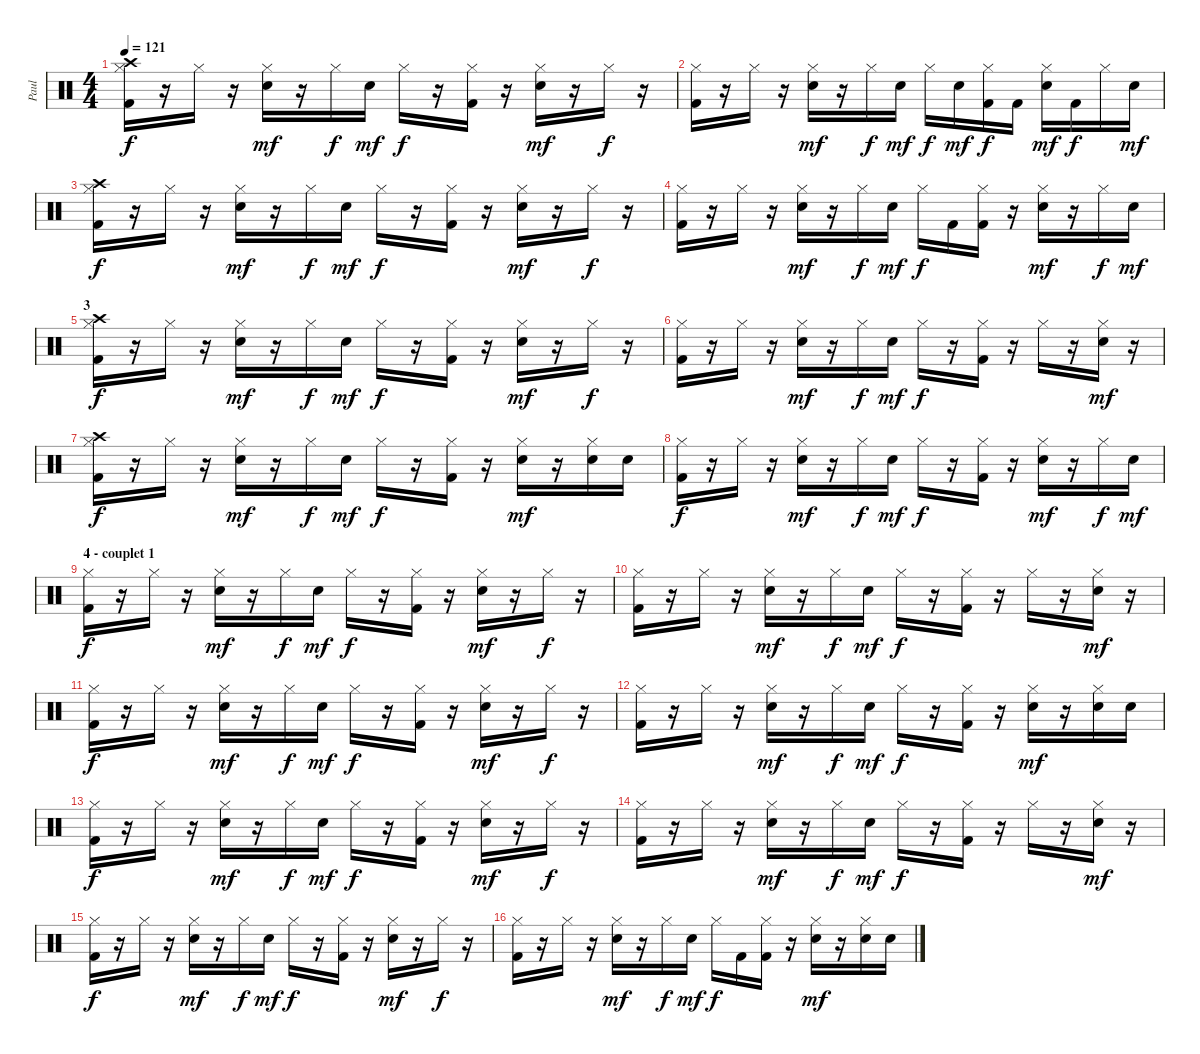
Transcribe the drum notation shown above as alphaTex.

\track ("Paul" "Paul") {instrument percussion}
\staff {score}
\articulation defaults
\ts (4 4)
\tempo 121
\clef neutral
\ks c
("Hi-Hat (closed)" "Crash high (hit)" "Kick (hit) 2").16{dy f} r.16 "Hi-Hat (closed)".16 r.16 ("Hi-Hat (closed)" "Snare (hit) 2").16{dy mf} r.16 "Hi-Hat (closed)".16{dy f} "Snare (hit) 2".16{dy mf} "Hi-Hat (closed)".16{dy f} r.16 ("Hi-Hat (closed)" "Kick (hit) 2").16 r.16 ("Hi-Hat (closed)" "Snare (hit) 2").16{dy mf} r.16 "Hi-Hat (closed)".16{dy f} r.16 |
("Hi-Hat (closed)" "Kick (hit) 2").16 r.16 "Hi-Hat (closed)".16 r.16 ("Hi-Hat (closed)" "Snare (hit) 2").16{dy mf} r.16 "Hi-Hat (closed)".16{dy f} "Snare (hit) 2".16{dy mf} "Hi-Hat (closed)".16{dy f} "Snare (hit) 2".16{dy mf} ("Hi-Hat (closed)" "Kick (hit) 2").16{dy f} "Kick (hit) 2".16 ("Hi-Hat (closed)" "Snare (hit) 2").16{dy mf} "Kick (hit) 2".16{dy f} "Hi-Hat (closed)".16 "Snare (hit) 2".16{dy mf} |
("Hi-Hat (closed)" "Crash high (hit)" "Kick (hit) 2").16{dy f} r.16 "Hi-Hat (closed)".16 r.16 ("Hi-Hat (closed)" "Snare (hit) 2").16{dy mf} r.16 "Hi-Hat (closed)".16{dy f} "Snare (hit) 2".16{dy mf} "Hi-Hat (closed)".16{dy f} r.16 ("Hi-Hat (closed)" "Kick (hit) 2").16 r.16 ("Hi-Hat (closed)" "Snare (hit) 2").16{dy mf} r.16 "Hi-Hat (closed)".16{dy f} r.16 |
("Hi-Hat (closed)" "Kick (hit) 2").16 r.16 "Hi-Hat (closed)".16 r.16 ("Hi-Hat (closed)" "Snare (hit) 2").16{dy mf} r.16 "Hi-Hat (closed)".16{dy f} "Snare (hit) 2".16{dy mf} "Hi-Hat (closed)".16{dy f} "Kick (hit) 2".16 ("Hi-Hat (closed)" "Kick (hit) 2").16 r.16 ("Hi-Hat (closed)" "Snare (hit) 2").16{dy mf} r.16 "Hi-Hat (closed)".16{dy f} "Snare (hit) 2".16{dy mf} |
\section ("" "3")
("Hi-Hat (closed)" "Crash high (hit)" "Kick (hit) 2").16{dy f} r.16 "Hi-Hat (closed)".16 r.16 ("Hi-Hat (closed)" "Snare (hit) 2").16{dy mf} r.16 "Hi-Hat (closed)".16{dy f} "Snare (hit) 2".16{dy mf} "Hi-Hat (closed)".16{dy f} r.16 ("Hi-Hat (closed)" "Kick (hit) 2").16 r.16 ("Hi-Hat (closed)" "Snare (hit) 2").16{dy mf} r.16 "Hi-Hat (closed)".16{dy f} r.16 |
("Hi-Hat (closed)" "Kick (hit) 2").16 r.16 "Hi-Hat (closed)".16 r.16 ("Hi-Hat (closed)" "Snare (hit) 2").16{dy mf} r.16 "Hi-Hat (closed)".16{dy f} "Snare (hit) 2".16{dy mf} "Hi-Hat (closed)".16{dy f} r.16 ("Hi-Hat (closed)" "Kick (hit) 2").16 r.16 "Hi-Hat (closed)".16 r.16 ("Hi-Hat (closed)" "Snare (hit) 2").16{dy mf} r.16 |
("Hi-Hat (closed)" "Crash high (hit)" "Kick (hit) 2").16{dy f} r.16 "Hi-Hat (closed)".16 r.16 ("Hi-Hat (closed)" "Snare (hit) 2").16{dy mf} r.16 "Hi-Hat (closed)".16{dy f} "Snare (hit) 2".16{dy mf} "Hi-Hat (closed)".16{dy f} r.16 ("Hi-Hat (closed)" "Kick (hit) 2").16 r.16 ("Hi-Hat (closed)" "Snare (hit) 2").16{dy mf} r.16 ("Hi-Hat (closed)" "Snare (hit) 2").16 "Snare (hit) 2".16 |
("Hi-Hat (closed)" "Kick (hit) 2").16{dy f} r.16 "Hi-Hat (closed)".16 r.16 ("Hi-Hat (closed)" "Snare (hit) 2").16{dy mf} r.16 "Hi-Hat (closed)".16{dy f} "Snare (hit) 2".16{dy mf} "Hi-Hat (closed)".16{dy f} r.16 ("Hi-Hat (closed)" "Kick (hit) 2").16 r.16 ("Hi-Hat (closed)" "Snare (hit) 2").16{dy mf} r.16 "Hi-Hat (closed)".16{dy f} "Snare (hit) 2".16{dy mf} |
\section ("" "4 - couplet 1")
("Hi-Hat (closed)" "Kick (hit) 2").16{dy f} r.16 "Hi-Hat (closed)".16 r.16 ("Hi-Hat (closed)" "Snare (hit) 2").16{dy mf} r.16 "Hi-Hat (closed)".16{dy f} "Snare (hit) 2".16{dy mf} "Hi-Hat (closed)".16{dy f} r.16 ("Hi-Hat (closed)" "Kick (hit) 2").16 r.16 ("Hi-Hat (closed)" "Snare (hit) 2").16{dy mf} r.16 "Hi-Hat (closed)".16{dy f} r.16 |
("Hi-Hat (closed)" "Kick (hit) 2").16 r.16 "Hi-Hat (closed)".16 r.16 ("Hi-Hat (closed)" "Snare (hit) 2").16{dy mf} r.16 "Hi-Hat (closed)".16{dy f} "Snare (hit) 2".16{dy mf} "Hi-Hat (closed)".16{dy f} r.16 ("Hi-Hat (closed)" "Kick (hit) 2").16 r.16 "Hi-Hat (closed)".16 r.16 ("Hi-Hat (closed)" "Snare (hit) 2").16{dy mf} r.16 |
("Hi-Hat (closed)" "Kick (hit) 2").16{dy f} r.16 "Hi-Hat (closed)".16 r.16 ("Hi-Hat (closed)" "Snare (hit) 2").16{dy mf} r.16 "Hi-Hat (closed)".16{dy f} "Snare (hit) 2".16{dy mf} "Hi-Hat (closed)".16{dy f} r.16 ("Hi-Hat (closed)" "Kick (hit) 2").16 r.16 ("Hi-Hat (closed)" "Snare (hit) 2").16{dy mf} r.16 "Hi-Hat (closed)".16{dy f} r.16 |
("Hi-Hat (closed)" "Kick (hit) 2").16 r.16 "Hi-Hat (closed)".16 r.16 ("Hi-Hat (closed)" "Snare (hit) 2").16{dy mf} r.16 "Hi-Hat (closed)".16{dy f} "Snare (hit) 2".16{dy mf} "Hi-Hat (closed)".16{dy f} r.16 ("Hi-Hat (closed)" "Kick (hit) 2").16 r.16 ("Hi-Hat (closed)" "Snare (hit) 2").16{dy mf} r.16 ("Hi-Hat (closed)" "Snare (hit) 2").16 "Snare (hit) 2".16 |
("Hi-Hat (closed)" "Kick (hit) 2").16{dy f} r.16 "Hi-Hat (closed)".16 r.16 ("Hi-Hat (closed)" "Snare (hit) 2").16{dy mf} r.16 "Hi-Hat (closed)".16{dy f} "Snare (hit) 2".16{dy mf} "Hi-Hat (closed)".16{dy f} r.16 ("Hi-Hat (closed)" "Kick (hit) 2").16 r.16 ("Hi-Hat (closed)" "Snare (hit) 2").16{dy mf} r.16 "Hi-Hat (closed)".16{dy f} r.16 |
("Hi-Hat (closed)" "Kick (hit) 2").16 r.16 "Hi-Hat (closed)".16 r.16 ("Hi-Hat (closed)" "Snare (hit) 2").16{dy mf} r.16 "Hi-Hat (closed)".16{dy f} "Snare (hit) 2".16{dy mf} "Hi-Hat (closed)".16{dy f} r.16 ("Hi-Hat (closed)" "Kick (hit) 2").16 r.16 "Hi-Hat (closed)".16 r.16 ("Hi-Hat (closed)" "Snare (hit) 2").16{dy mf} r.16 |
("Hi-Hat (closed)" "Kick (hit) 2").16{dy f} r.16 "Hi-Hat (closed)".16 r.16 ("Hi-Hat (closed)" "Snare (hit) 2").16{dy mf} r.16 "Hi-Hat (closed)".16{dy f} "Snare (hit) 2".16{dy mf} "Hi-Hat (closed)".16{dy f} r.16 ("Hi-Hat (closed)" "Kick (hit) 2").16 r.16 ("Hi-Hat (closed)" "Snare (hit) 2").16{dy mf} r.16 "Hi-Hat (closed)".16{dy f} r.16 |
("Hi-Hat (closed)" "Kick (hit) 2").16 r.16 "Hi-Hat (closed)".16 r.16 ("Hi-Hat (closed)" "Snare (hit) 2").16{dy mf} r.16 "Hi-Hat (closed)".16{dy f} "Snare (hit) 2".16{dy mf} "Hi-Hat (closed)".16{dy f} "Kick (hit) 2".16 ("Hi-Hat (closed)" "Kick (hit) 2").16 r.16 ("Hi-Hat (closed)" "Snare (hit) 2").16{dy mf} r.16 ("Hi-Hat (closed)" "Snare (hit) 2").16 "Snare (hit) 2".16
